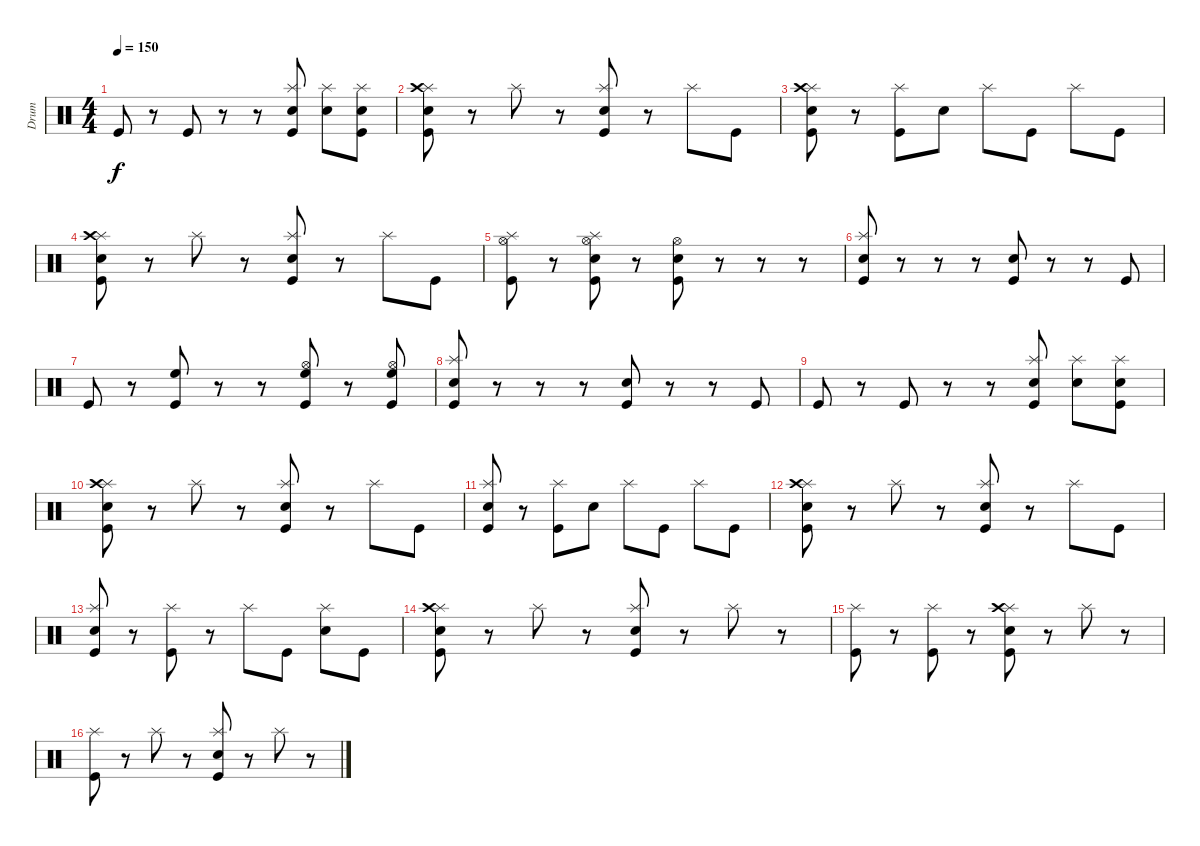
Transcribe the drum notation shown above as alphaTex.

\track ("Drum" "Drum") {instrument percussion}
\staff {score}
\articulation defaults
\ts (4 4)
\tempo 150
\clef neutral
\ks c "Kick (hit)".8{dy f}
r.8 "Kick (hit)".8 r.8 r.8 ("Splash (hit)" "Snare (hit) 2" "Kick (hit)").8 ("Splash (hit)" "Snare (hit) 2").8 ("Splash (hit)" "Snare (hit) 2" "Kick (hit)").8 |
("Splash (hit)" "Crash high (hit)" "Snare (hit) 2" "Kick (hit)").8 r.8 "Splash (hit)".8 r.8 ("Splash (hit)" "Snare (hit) 2" "Kick (hit)").8 r.8 "Splash (hit)".8 "Kick (hit)".8 |
("Splash (hit)" "Crash high (hit)" "Snare (hit) 2" "Kick (hit)").8 r.8 ("Splash (hit)" "Kick (hit)").8 "Snare (hit) 2".8 "Splash (hit)".8 "Kick (hit)".8 "Splash (hit)".8 "Kick (hit)".8 |
("Splash (hit)" "Crash high (hit)" "Snare (hit) 2" "Kick (hit)").8 r.8 "Splash (hit)".8 r.8 ("Splash (hit)" "Snare (hit) 2" "Kick (hit)").8 r.8 "Splash (hit)".8 "Kick (hit)".8 |
("Splash (hit)" "Hi-Hat (open)" "Kick (hit)").8 r.8 ("Splash (hit)" "Hi-Hat (open)" "Snare (hit) 2" "Kick (hit)").8 r.8 ("Hi-Hat (open)" "Snare (hit) 2" "Kick (hit)").8 r.8 r.8 r.8 |
("Splash (hit)" "Snare (hit) 2" "Kick (hit)").8 r.8 r.8 r.8 ("Snare (hit) 2" "Kick (hit)").8 r.8 r.8 "Kick (hit)".8 |
"Kick (hit)".8 r.8 ("High Floor Tom (hit)" "Kick (hit)").8 r.8 r.8 ("Hi-Hat (open)" "High Floor Tom (hit)" "Kick (hit)").8 r.8 ("Hi-Hat (open)" "High Floor Tom (hit)" "Kick (hit)").8 |
("Splash (hit)" "Snare (hit) 2" "Kick (hit)").8 r.8 r.8 r.8 ("Snare (hit) 2" "Kick (hit)").8 r.8 r.8 "Kick (hit)".8 |
"Kick (hit)".8 r.8 "Kick (hit)".8 r.8 r.8 ("Splash (hit)" "Snare (hit) 2" "Kick (hit)").8 ("Splash (hit)" "Snare (hit) 2").8 ("Splash (hit)" "Snare (hit) 2" "Kick (hit)").8 |
("Splash (hit)" "Crash high (hit)" "Snare (hit) 2" "Kick (hit)").8 r.8 "Splash (hit)".8 r.8 ("Splash (hit)" "Snare (hit) 2" "Kick (hit)").8 r.8 "Splash (hit)".8 "Kick (hit)".8 |
("Splash (hit)" "Snare (hit) 2" "Kick (hit)").8 r.8 ("Splash (hit)" "Kick (hit)").8 "Snare (hit) 2".8 "Splash (hit)".8 "Kick (hit)".8 "Splash (hit)".8 "Kick (hit)".8 |
("Splash (hit)" "Crash high (hit)" "Snare (hit) 2" "Kick (hit)").8 r.8 "Splash (hit)".8 r.8 ("Splash (hit)" "Snare (hit) 2" "Kick (hit)").8 r.8 "Splash (hit)".8 "Kick (hit)".8 |
("Splash (hit)" "Snare (hit) 2" "Kick (hit)").8 r.8 ("Splash (hit)" "Kick (hit)").8 r.8 "Splash (hit)".8 "Kick (hit)".8 ("Splash (hit)" "Snare (hit) 2").8 "Kick (hit)".8 |
("Splash (hit)" "Crash high (hit)" "Snare (hit) 2" "Kick (hit)").8 r.8 "Splash (hit)".8 r.8 ("Splash (hit)" "Snare (hit) 2" "Kick (hit)").8 r.8 "Splash (hit)".8 r.8 |
("Splash (hit)" "Kick (hit)").8 r.8 ("Splash (hit)" "Kick (hit)").8 r.8 ("Splash (hit)" "Crash high (hit)" "Snare (hit) 2" "Kick (hit)").8 r.8 "Splash (hit)".8 r.8 |
("Splash (hit)" "Kick (hit)").8 r.8 "Splash (hit)".8 r.8 ("Splash (hit)" "Snare (hit) 2" "Kick (hit)").8 r.8 "Splash (hit)".8 r.8
